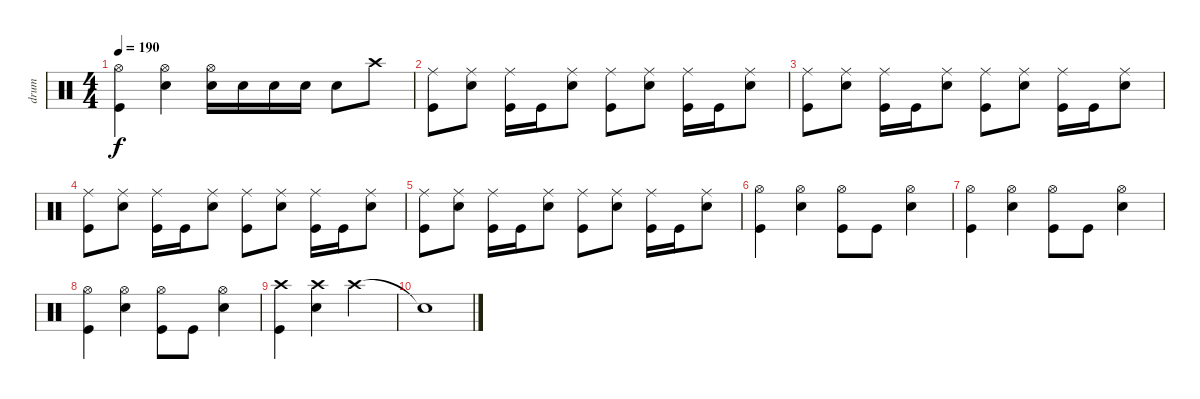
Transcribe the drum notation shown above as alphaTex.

\track ("drum" "drum") {instrument percussion}
\staff {score}
\articulation defaults
\ts (4 4)
\tempo 190
\clef neutral
\ks c
("Kick (hit)" "Hi-Hat (open)").4{dy f} ("Snare (hit) 2" "Hi-Hat (open)").4 ("Snare (hit) 2" "Hi-Hat (open)").16 "Snare (hit) 2".16 "Snare (hit) 2".16 "Snare (hit) 2".16 "Snare (hit) 2".8 "Crash high (hit)".8 |
("Kick (hit)" "Ride (middle)").8 ("Snare (hit) 2" "Ride (middle)").8 ("Kick (hit)" "Ride (middle)").16 "Kick (hit)".16 ("Snare (hit) 2" "Ride (middle)").8 ("Kick (hit)" "Ride (middle)").8 ("Snare (hit) 2" "Ride (middle)").8 ("Kick (hit)" "Ride (middle)").16 "Kick (hit)".16 ("Snare (hit) 2" "Ride (middle)").8 |
("Kick (hit)" "Ride (middle)").8 ("Snare (hit) 2" "Ride (middle)").8 ("Kick (hit)" "Ride (middle)").16 "Kick (hit)".16 ("Snare (hit) 2" "Ride (middle)").8 ("Kick (hit)" "Ride (middle)").8 ("Snare (hit) 2" "Ride (middle)").8 ("Kick (hit)" "Ride (middle)").16 "Kick (hit)".16 ("Snare (hit) 2" "Ride (middle)").8 |
("Kick (hit)" "Ride (middle)").8 ("Snare (hit) 2" "Ride (middle)").8 ("Kick (hit)" "Ride (middle)").16 "Kick (hit)".16 ("Snare (hit) 2" "Ride (middle)").8 ("Kick (hit)" "Ride (middle)").8 ("Snare (hit) 2" "Ride (middle)").8 ("Kick (hit)" "Ride (middle)").16 "Kick (hit)".16 ("Snare (hit) 2" "Ride (middle)").8 |
("Kick (hit)" "Ride (middle)").8 ("Snare (hit) 2" "Ride (middle)").8 ("Kick (hit)" "Ride (middle)").16 "Kick (hit)".16 ("Snare (hit) 2" "Ride (middle)").8 ("Kick (hit)" "Ride (middle)").8 ("Snare (hit) 2" "Ride (middle)").8 ("Kick (hit)" "Ride (middle)").16 "Kick (hit)".16 ("Snare (hit) 2" "Ride (middle)").8 |
("Kick (hit)" "Hi-Hat (open)").4 ("Snare (hit) 2" "Hi-Hat (open)").4 ("Kick (hit)" "Hi-Hat (open)").8 "Kick (hit)".8 ("Snare (hit) 2" "Hi-Hat (open)").4 |
("Kick (hit)" "Hi-Hat (open)").4 ("Snare (hit) 2" "Hi-Hat (open)").4 ("Kick (hit)" "Hi-Hat (open)").8 "Kick (hit)".8 ("Snare (hit) 2" "Hi-Hat (open)").4 |
("Kick (hit)" "Hi-Hat (open)").4 ("Snare (hit) 2" "Hi-Hat (open)").4 ("Kick (hit)" "Hi-Hat (open)").8 "Kick (hit)".8 ("Snare (hit) 2" "Hi-Hat (open)").4 |
("Kick (hit)" "Crash high (hit)").4 ("Snare (hit) 2" "Crash high (hit)").4 "Crash high (hit)".2 |
"Snare (hit)"{t}.1
